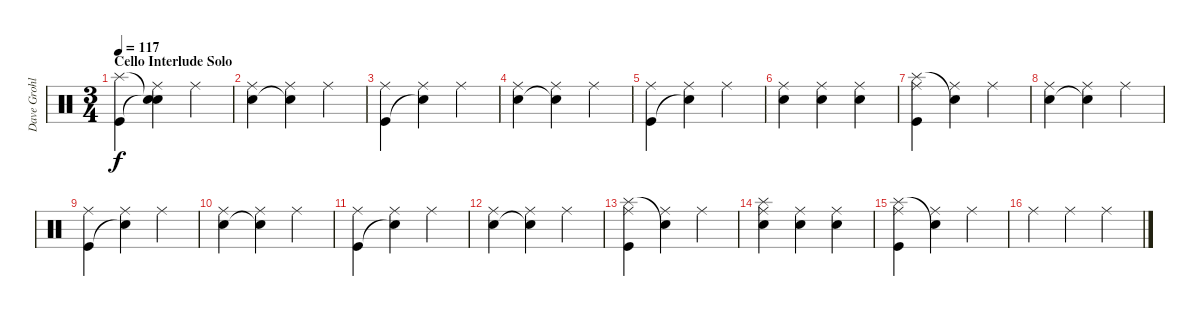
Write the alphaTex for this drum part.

\track ("Dave Grohl-Drums" "Dave Grohl") {instrument percussion}
\staff {score}
\articulation defaults
\ts (3 4)
\section ("" "Cello Interlude Solo")
\tempo 117
\clef neutral
\ks c
("Splash (hit)" "Kick (hit)").4{dy f} ("Snare (hit)"{t} "Snare (hit)"{t} "Ride (middle)").4 "Ride (middle)".4 |
("Electric Snare (hit)" "Ride (middle)").4 ("Snare (hit)"{t} "Ride (middle)").4 "Ride (middle)".4 |
("Kick (hit)" "Ride (middle)").4 ("Snare (hit)"{t} "Ride (middle)").4 "Ride (middle)".4 |
("Electric Snare (hit)" "Ride (middle)").4 ("Snare (hit)"{t} "Ride (middle)").4 "Ride (middle)".4 |
("Kick (hit)" "Ride (middle)").4 ("Snare (hit)"{t} "Ride (middle)").4 "Ride (middle)".4 |
("Electric Snare (hit)" "Ride (middle)").4 ("Electric Snare (hit)" "Ride (middle)").4 ("Electric Snare (hit)" "Ride (middle)").4 |
("Splash (hit)" "Kick (hit)" "Ride (middle)").4 ("Snare (hit)"{t} "Ride (middle)").4 "Ride (middle)".4 |
("Electric Snare (hit)" "Ride (middle)").4 ("Snare (hit)"{t} "Ride (middle)").4 "Ride (middle)".4 |
("Kick (hit)" "Ride (middle)").4 ("Snare (hit)"{t} "Ride (middle)").4 "Ride (middle)".4 |
("Electric Snare (hit)" "Ride (middle)").4 ("Snare (hit)"{t} "Ride (middle)").4 "Ride (middle)".4 |
("Kick (hit)" "Ride (middle)").4 ("Snare (hit)"{t} "Ride (middle)").4 "Ride (middle)".4 |
("Electric Snare (hit)" "Ride (middle)").4 ("Snare (hit)"{t} "Ride (middle)").4 "Ride (middle)".4 |
("Splash (hit)" "Kick (hit)" "Ride (middle)").4 ("Snare (hit)"{t} "Ride (middle)").4 "Ride (middle)".4 |
("Splash (hit)" "Electric Snare (hit)" "Ride (middle)").4 ("Electric Snare (hit)" "Ride (middle)").4 ("Electric Snare (hit)" "Ride (middle)").4 |
("Splash (hit)" "Kick (hit)" "Ride (middle)").4 ("Snare (hit)"{t} "Ride (middle)").4 "Ride (middle)".4 |
"Ride (middle)".4{volume 2} "Ride (middle)".4 "Ride (middle)".4
